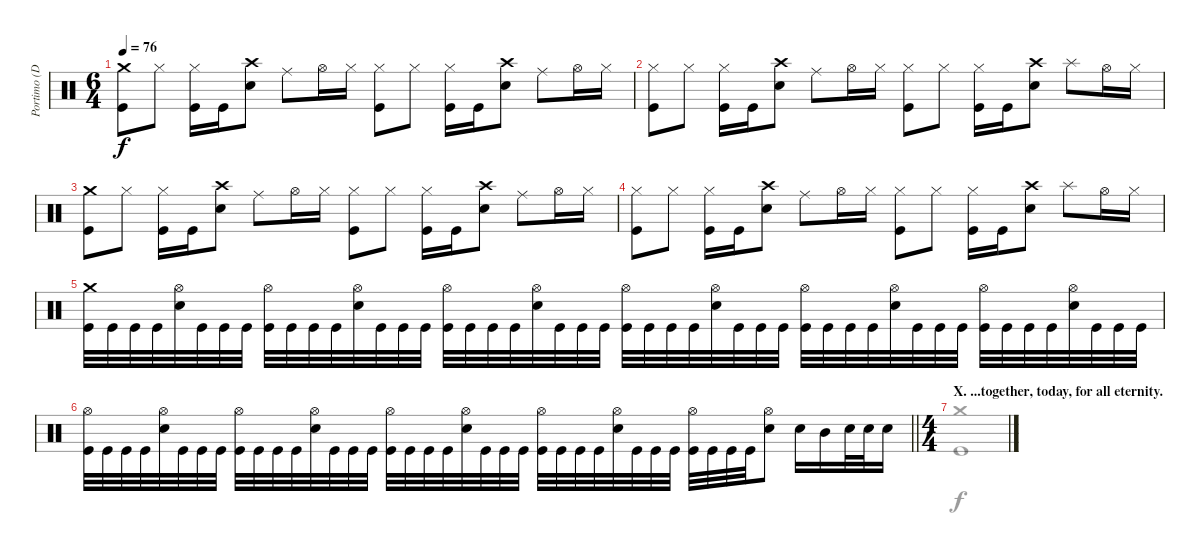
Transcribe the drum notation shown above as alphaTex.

\track ("Portimo (Drums)" "Portimo (D") {mute instrument percussion}
\staff {score}
\articulation defaults
\voice
\ts (6 4)
\tempo 76
\clef neutral
\ks c
("Crash medium (hit)" "Kick (hit)").8{dy f} "Hi-Hat (closed)".8 ("Hi-Hat (closed)" "Kick (hit)").16 "Kick (hit)".16 ("Crash high (hit)" "Snare (hit) 2").8 "Ride (middle)".8 "Hi-Hat (open)".16 "Hi-Hat (closed)".16 ("Hi-Hat (closed)" "Kick (hit)").8 "Hi-Hat (closed)".8 ("Hi-Hat (closed)" "Kick (hit)").16 "Kick (hit)".16 ("Crash high (hit)" "Snare (hit) 2").8 "Ride (middle)".8 "Hi-Hat (open)".16 "Hi-Hat (closed)".16 |
("Hi-Hat (closed)" "Kick (hit)").8 "Hi-Hat (closed)".8 ("Hi-Hat (closed)" "Kick (hit)").16 "Kick (hit)".16 ("Crash high (hit)" "Snare (hit) 2").8 "Ride (middle)".8 "Hi-Hat (open)".16 "Hi-Hat (closed)".16 ("Hi-Hat (closed)" "Kick (hit)").8 "Hi-Hat (closed)".8 ("Hi-Hat (closed)" "Kick (hit)").16 "Kick (hit)".16 ("Crash high (hit)" "Snare (hit) 2").8 "Splash (hit)".8 "Hi-Hat (open)".16 "Hi-Hat (closed)".16 |
("Crash medium (hit)" "Kick (hit)").8 "Hi-Hat (closed)".8 ("Hi-Hat (closed)" "Kick (hit)").16 "Kick (hit)".16 ("Crash high (hit)" "Snare (hit) 2").8 "Ride (middle)".8 "Hi-Hat (open)".16 "Hi-Hat (closed)".16 ("Hi-Hat (closed)" "Kick (hit)").8 "Hi-Hat (closed)".8 ("Hi-Hat (closed)" "Kick (hit)").16 "Kick (hit)".16 ("Crash high (hit)" "Snare (hit) 2").8 "Ride (middle)".8 "Hi-Hat (open)".16 "Hi-Hat (closed)".16 |
("Hi-Hat (closed)" "Kick (hit)").8 "Hi-Hat (closed)".8 ("Hi-Hat (closed)" "Kick (hit)").16 "Kick (hit)".16 ("Crash high (hit)" "Snare (hit) 2").8 "Ride (middle)".8 "Hi-Hat (open)".16 "Hi-Hat (closed)".16 ("Hi-Hat (closed)" "Kick (hit)").8 "Hi-Hat (closed)".8 ("Hi-Hat (closed)" "Kick (hit)").16 "Kick (hit)".16 ("Crash high (hit)" "Snare (hit) 2").8 "Splash (hit)".8 "Hi-Hat (open)".16 "Hi-Hat (closed)".16 |
("Crash medium (hit)" "Kick (hit)").32 "Kick (hit)".32 "Kick (hit)".32 "Kick (hit)".32 ("Hi-Hat (open)" "Snare (hit) 2").32 "Kick (hit)".32 "Kick (hit)".32 "Kick (hit)".32 ("Hi-Hat (open)" "Kick (hit)").32 "Kick (hit)".32 "Kick (hit)".32 "Kick (hit)".32 ("Hi-Hat (open)" "Snare (hit) 2").32 "Kick (hit)".32 "Kick (hit)".32 "Kick (hit)".32 ("Hi-Hat (open)" "Kick (hit)").32 "Kick (hit)".32 "Kick (hit)".32 "Kick (hit)".32 ("Hi-Hat (open)" "Snare (hit) 2").32 "Kick (hit)".32 "Kick (hit)".32 "Kick (hit)".32 ("Hi-Hat (open)" "Kick (hit)").32 "Kick (hit)".32 "Kick (hit)".32 "Kick (hit)".32 ("Hi-Hat (open)" "Snare (hit) 2").32 "Kick (hit)".32 "Kick (hit)".32 "Kick (hit)".32 ("Hi-Hat (open)" "Kick (hit)").32 "Kick (hit)".32 "Kick (hit)".32 "Kick (hit)".32 ("Hi-Hat (open)" "Snare (hit) 2").32 "Kick (hit)".32 "Kick (hit)".32 "Kick (hit)".32 ("Hi-Hat (open)" "Kick (hit)").32 "Kick (hit)".32 "Kick (hit)".32 "Kick (hit)".32 ("Hi-Hat (open)" "Snare (hit) 2").32 "Kick (hit)".32 "Kick (hit)".32 "Kick (hit)".32 |
\barLineRight lightlight
("Hi-Hat (open)" "Kick (hit)").32 "Kick (hit)".32 "Kick (hit)".32 "Kick (hit)".32 ("Hi-Hat (open)" "Snare (hit) 2").32 "Kick (hit)".32 "Kick (hit)".32 "Kick (hit)".32 ("Hi-Hat (open)" "Kick (hit)").32 "Kick (hit)".32 "Kick (hit)".32 "Kick (hit)".32 ("Hi-Hat (open)" "Snare (hit) 2").32 "Kick (hit)".32 "Kick (hit)".32 "Kick (hit)".32 ("Hi-Hat (open)" "Kick (hit)").32 "Kick (hit)".32 "Kick (hit)".32 "Kick (hit)".32 ("Hi-Hat (open)" "Snare (hit) 2").32 "Kick (hit)".32 "Kick (hit)".32 "Kick (hit)".32 ("Hi-Hat (open)" "Kick (hit)").32 "Kick (hit)".32 "Kick (hit)".32 "Kick (hit)".32 ("Hi-Hat (open)" "Snare (hit) 2").32 "Kick (hit)".32 "Kick (hit)".32 "Kick (hit)".32 ("Hi-Hat (open)" "Kick (hit)").32 "Kick (hit)".32 "Kick (hit)".32 "Kick (hit)".32 ("Hi-Hat (open)" "Snare (hit) 2").8 "Snare (hit) 2".16 "Mid Tom (hit)".16 "Snare (hit) 2".32 "Snare (hit) 2".32 "Snare (hit) 2".16 |
\ts (4 4)
\section ("" "X. ...together, today, for all eternity.")
|
|
|
|
|
|
|
|
|
\voice
\clef neutral
\ottava regular
\simile none
\ks c
|
|
|
|
|
\barLineRight lightlight
|
("Crash medium (hit)" "Kick (hit)").1 |
|
|
|
|
|
|
|
|
